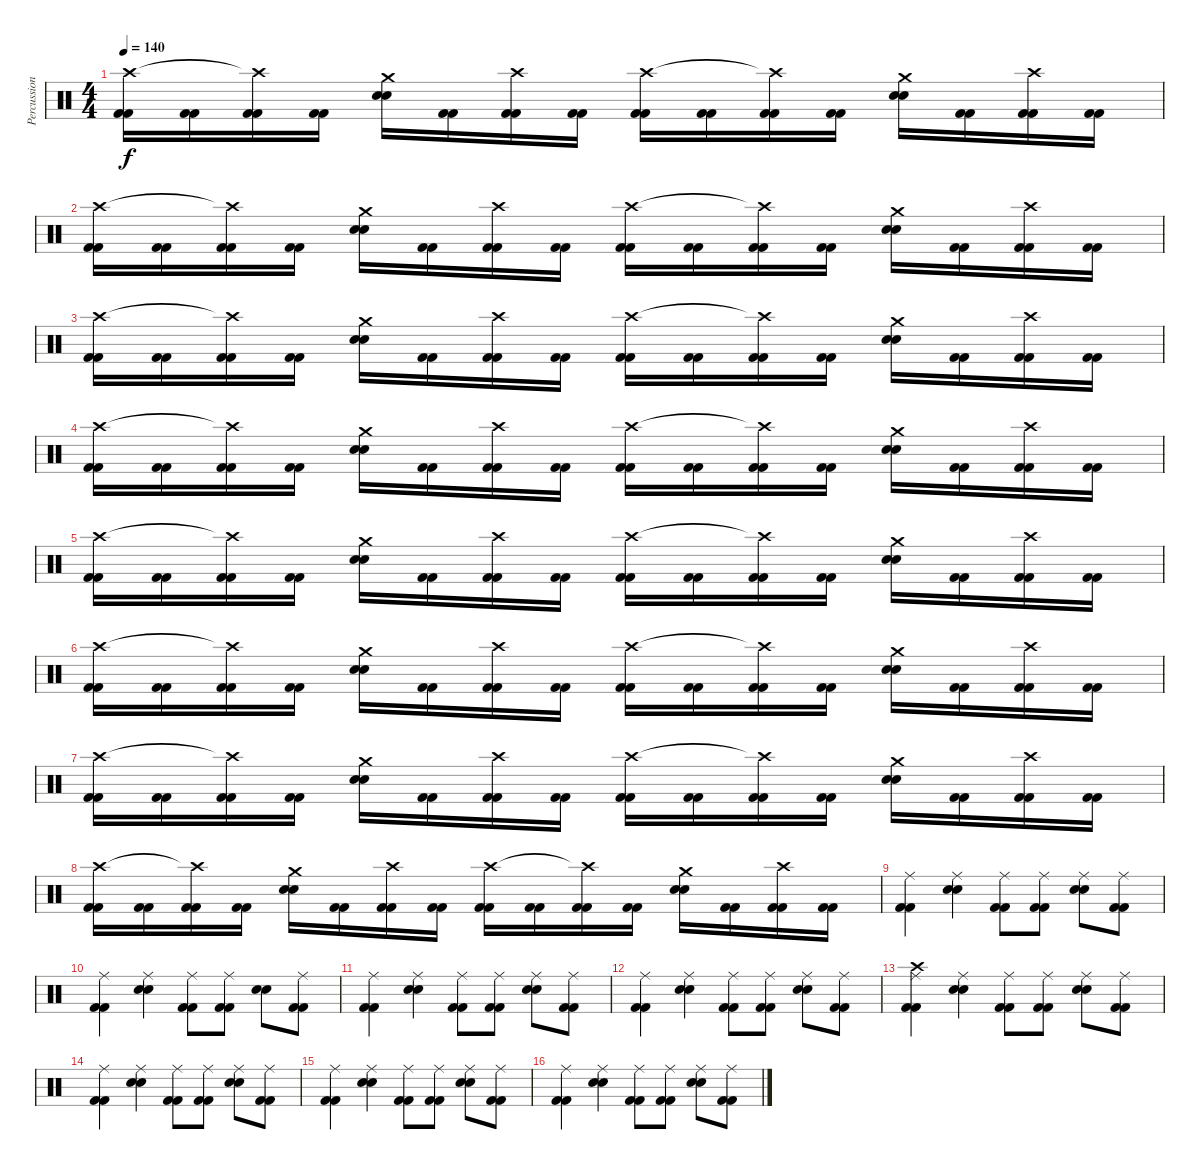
\track ("Percussion" "Percussion") {instrument percussion}
\staff {score}
\articulation defaults
\ts (4 4)
\tempo 140
\clef neutral
\ks c
("Kick (hit) 2" "Kick (hit) 2" "Crash high (hit)").16{dy f} ("Kick (hit) 2" "Kick (hit) 2").16 ("Kick (hit) 2" "Kick (hit) 2" "Crash high (hit)"{t}).16 ("Kick (hit) 2" "Kick (hit) 2").16 ("Snare (hit) 2" "Snare (hit) 2" "Crash medium (hit)").16 ("Kick (hit) 2" "Kick (hit) 2").16 ("Kick (hit) 2" "Kick (hit) 2" "Crash high (hit)").16 ("Kick (hit) 2" "Kick (hit) 2").16 ("Kick (hit) 2" "Kick (hit) 2" "Crash high (hit)").16 ("Kick (hit) 2" "Kick (hit) 2").16 ("Kick (hit) 2" "Kick (hit) 2" "Crash high (hit)"{t}).16 ("Kick (hit) 2" "Kick (hit) 2").16 ("Snare (hit) 2" "Snare (hit) 2" "Crash medium (hit)").16 ("Kick (hit) 2" "Kick (hit) 2").16 ("Kick (hit) 2" "Kick (hit) 2" "Crash high (hit)").16 ("Kick (hit) 2" "Kick (hit) 2").16 |
("Kick (hit) 2" "Kick (hit) 2" "Crash high (hit)").16 ("Kick (hit) 2" "Kick (hit) 2").16 ("Kick (hit) 2" "Kick (hit) 2" "Crash high (hit)"{t}).16 ("Kick (hit) 2" "Kick (hit) 2").16 ("Snare (hit) 2" "Snare (hit) 2" "Crash medium (hit)").16 ("Kick (hit) 2" "Kick (hit) 2").16 ("Kick (hit) 2" "Kick (hit) 2" "Crash high (hit)").16 ("Kick (hit) 2" "Kick (hit) 2").16 ("Kick (hit) 2" "Kick (hit) 2" "Crash high (hit)").16 ("Kick (hit) 2" "Kick (hit) 2").16 ("Kick (hit) 2" "Kick (hit) 2" "Crash high (hit)"{t}).16 ("Kick (hit) 2" "Kick (hit) 2").16 ("Snare (hit) 2" "Snare (hit) 2" "Crash medium (hit)").16 ("Kick (hit) 2" "Kick (hit) 2").16 ("Kick (hit) 2" "Kick (hit) 2" "Crash high (hit)").16 ("Kick (hit) 2" "Kick (hit) 2").16 |
("Kick (hit) 2" "Kick (hit) 2" "Crash high (hit)").16 ("Kick (hit) 2" "Kick (hit) 2").16 ("Kick (hit) 2" "Kick (hit) 2" "Crash high (hit)"{t}).16 ("Kick (hit) 2" "Kick (hit) 2").16 ("Snare (hit) 2" "Snare (hit) 2" "Crash medium (hit)").16 ("Kick (hit) 2" "Kick (hit) 2").16 ("Kick (hit) 2" "Kick (hit) 2" "Crash high (hit)").16 ("Kick (hit) 2" "Kick (hit) 2").16 ("Kick (hit) 2" "Kick (hit) 2" "Crash high (hit)").16 ("Kick (hit) 2" "Kick (hit) 2").16 ("Kick (hit) 2" "Kick (hit) 2" "Crash high (hit)"{t}).16 ("Kick (hit) 2" "Kick (hit) 2").16 ("Snare (hit) 2" "Snare (hit) 2" "Crash medium (hit)").16 ("Kick (hit) 2" "Kick (hit) 2").16 ("Kick (hit) 2" "Kick (hit) 2" "Crash high (hit)").16 ("Kick (hit) 2" "Kick (hit) 2").16 |
("Kick (hit) 2" "Kick (hit) 2" "Crash high (hit)").16 ("Kick (hit) 2" "Kick (hit) 2").16 ("Kick (hit) 2" "Kick (hit) 2" "Crash high (hit)"{t}).16 ("Kick (hit) 2" "Kick (hit) 2").16 ("Snare (hit) 2" "Snare (hit) 2" "Crash medium (hit)").16 ("Kick (hit) 2" "Kick (hit) 2").16 ("Kick (hit) 2" "Kick (hit) 2" "Crash high (hit)").16 ("Kick (hit) 2" "Kick (hit) 2").16 ("Kick (hit) 2" "Kick (hit) 2" "Crash high (hit)").16 ("Kick (hit) 2" "Kick (hit) 2").16 ("Kick (hit) 2" "Kick (hit) 2" "Crash high (hit)"{t}).16 ("Kick (hit) 2" "Kick (hit) 2").16 ("Snare (hit) 2" "Snare (hit) 2" "Crash medium (hit)").16 ("Kick (hit) 2" "Kick (hit) 2").16 ("Kick (hit) 2" "Kick (hit) 2" "Crash high (hit)").16 ("Kick (hit) 2" "Kick (hit) 2").16 |
("Kick (hit) 2" "Kick (hit) 2" "Crash high (hit)").16 ("Kick (hit) 2" "Kick (hit) 2").16 ("Kick (hit) 2" "Kick (hit) 2" "Crash high (hit)"{t}).16 ("Kick (hit) 2" "Kick (hit) 2").16 ("Snare (hit) 2" "Snare (hit) 2" "Crash medium (hit)").16 ("Kick (hit) 2" "Kick (hit) 2").16 ("Kick (hit) 2" "Kick (hit) 2" "Crash high (hit)").16 ("Kick (hit) 2" "Kick (hit) 2").16 ("Kick (hit) 2" "Kick (hit) 2" "Crash high (hit)").16 ("Kick (hit) 2" "Kick (hit) 2").16 ("Kick (hit) 2" "Kick (hit) 2" "Crash high (hit)"{t}).16 ("Kick (hit) 2" "Kick (hit) 2").16 ("Snare (hit) 2" "Snare (hit) 2" "Crash medium (hit)").16 ("Kick (hit) 2" "Kick (hit) 2").16 ("Kick (hit) 2" "Kick (hit) 2" "Crash high (hit)").16 ("Kick (hit) 2" "Kick (hit) 2").16 |
("Kick (hit) 2" "Kick (hit) 2" "Crash high (hit)").16 ("Kick (hit) 2" "Kick (hit) 2").16 ("Kick (hit) 2" "Kick (hit) 2" "Crash high (hit)"{t}).16 ("Kick (hit) 2" "Kick (hit) 2").16 ("Snare (hit) 2" "Snare (hit) 2" "Crash medium (hit)").16 ("Kick (hit) 2" "Kick (hit) 2").16 ("Kick (hit) 2" "Kick (hit) 2" "Crash high (hit)").16 ("Kick (hit) 2" "Kick (hit) 2").16 ("Kick (hit) 2" "Kick (hit) 2" "Crash high (hit)").16 ("Kick (hit) 2" "Kick (hit) 2").16 ("Kick (hit) 2" "Kick (hit) 2" "Crash high (hit)"{t}).16 ("Kick (hit) 2" "Kick (hit) 2").16 ("Snare (hit) 2" "Snare (hit) 2" "Crash medium (hit)").16 ("Kick (hit) 2" "Kick (hit) 2").16 ("Kick (hit) 2" "Kick (hit) 2" "Crash high (hit)").16 ("Kick (hit) 2" "Kick (hit) 2").16 |
("Kick (hit) 2" "Kick (hit) 2" "Crash high (hit)").16 ("Kick (hit) 2" "Kick (hit) 2").16 ("Kick (hit) 2" "Kick (hit) 2" "Crash high (hit)"{t}).16 ("Kick (hit) 2" "Kick (hit) 2").16 ("Snare (hit) 2" "Snare (hit) 2" "Crash medium (hit)").16 ("Kick (hit) 2" "Kick (hit) 2").16 ("Kick (hit) 2" "Kick (hit) 2" "Crash high (hit)").16 ("Kick (hit) 2" "Kick (hit) 2").16 ("Kick (hit) 2" "Kick (hit) 2" "Crash high (hit)").16 ("Kick (hit) 2" "Kick (hit) 2").16 ("Kick (hit) 2" "Kick (hit) 2" "Crash high (hit)"{t}).16 ("Kick (hit) 2" "Kick (hit) 2").16 ("Snare (hit) 2" "Snare (hit) 2" "Crash medium (hit)").16 ("Kick (hit) 2" "Kick (hit) 2").16 ("Kick (hit) 2" "Kick (hit) 2" "Crash high (hit)").16 ("Kick (hit) 2" "Kick (hit) 2").16 |
("Kick (hit) 2" "Kick (hit) 2" "Crash high (hit)").16 ("Kick (hit) 2" "Kick (hit) 2").16 ("Kick (hit) 2" "Kick (hit) 2" "Crash high (hit)"{t}).16 ("Kick (hit) 2" "Kick (hit) 2").16 ("Snare (hit) 2" "Snare (hit) 2" "Crash medium (hit)").16 ("Kick (hit) 2" "Kick (hit) 2").16 ("Kick (hit) 2" "Kick (hit) 2" "Crash high (hit)").16 ("Kick (hit) 2" "Kick (hit) 2").16 ("Kick (hit) 2" "Kick (hit) 2" "Crash high (hit)").16 ("Kick (hit) 2" "Kick (hit) 2").16 ("Kick (hit) 2" "Kick (hit) 2" "Crash high (hit)"{t}).16 ("Kick (hit) 2" "Kick (hit) 2").16 ("Snare (hit) 2" "Snare (hit) 2" "Crash medium (hit)").16 ("Kick (hit) 2" "Kick (hit) 2").16 ("Kick (hit) 2" "Kick (hit) 2" "Crash high (hit)").16 ("Kick (hit) 2" "Kick (hit) 2").16 |
("Kick (hit) 2" "Kick (hit) 2" "Ride (middle)").4 ("Snare (hit) 2" "Snare (hit) 2" "Ride (middle)").4 ("Kick (hit) 2" "Kick (hit) 2" "Ride (middle)").8 ("Kick (hit) 2" "Kick (hit) 2" "Ride (middle)").8 ("Snare (hit) 2" "Snare (hit) 2" "Ride (middle)").8 ("Kick (hit) 2" "Kick (hit) 2" "Ride (middle)").8 |
("Kick (hit) 2" "Kick (hit) 2" "Ride (middle)").4 ("Snare (hit) 2" "Snare (hit) 2" "Ride (middle)").4 ("Kick (hit) 2" "Kick (hit) 2" "Ride (middle)").8 ("Kick (hit) 2" "Kick (hit) 2" "Ride (middle)").8 ("Snare (hit) 2" "Snare (hit) 2").8 ("Kick (hit) 2" "Kick (hit) 2" "Ride (middle)").8 |
("Kick (hit) 2" "Kick (hit) 2" "Ride (middle)").4 ("Snare (hit) 2" "Snare (hit) 2" "Ride (middle)").4 ("Kick (hit) 2" "Kick (hit) 2" "Ride (middle)").8 ("Kick (hit) 2" "Kick (hit) 2" "Ride (middle)").8 ("Snare (hit) 2" "Snare (hit) 2" "Ride (middle)").8 ("Kick (hit) 2" "Kick (hit) 2" "Ride (middle)").8 |
("Kick (hit) 2" "Kick (hit) 2" "Ride (middle)").4 ("Snare (hit) 2" "Snare (hit) 2" "Ride (middle)").4 ("Kick (hit) 2" "Kick (hit) 2" "Ride (middle)").8 ("Kick (hit) 2" "Kick (hit) 2" "Ride (middle)").8 ("Snare (hit) 2" "Snare (hit) 2" "Ride (middle)").8 ("Kick (hit) 2" "Kick (hit) 2" "Ride (middle)").8 |
("Kick (hit) 2" "Kick (hit) 2" "Ride (middle)" "Crash high (hit)").4 ("Snare (hit) 2" "Snare (hit) 2" "Ride (middle)").4 ("Kick (hit) 2" "Kick (hit) 2" "Ride (middle)").8 ("Kick (hit) 2" "Kick (hit) 2" "Ride (middle)").8 ("Snare (hit) 2" "Snare (hit) 2" "Ride (middle)").8 ("Kick (hit) 2" "Kick (hit) 2" "Ride (middle)").8 |
("Kick (hit) 2" "Kick (hit) 2" "Ride (middle)").4 ("Snare (hit) 2" "Snare (hit) 2" "Ride (middle)").4 ("Kick (hit) 2" "Kick (hit) 2" "Ride (middle)").8 ("Kick (hit) 2" "Kick (hit) 2" "Ride (middle)").8 ("Snare (hit) 2" "Snare (hit) 2" "Ride (middle)").8 ("Kick (hit) 2" "Kick (hit) 2" "Ride (middle)").8 |
("Kick (hit) 2" "Kick (hit) 2" "Ride (middle)").4 ("Snare (hit) 2" "Snare (hit) 2" "Ride (middle)").4 ("Kick (hit) 2" "Kick (hit) 2" "Ride (middle)").8 ("Kick (hit) 2" "Kick (hit) 2" "Ride (middle)").8 ("Snare (hit) 2" "Snare (hit) 2" "Ride (middle)").8 ("Kick (hit) 2" "Kick (hit) 2" "Ride (middle)").8 |
("Kick (hit) 2" "Kick (hit) 2" "Ride (middle)").4 ("Snare (hit) 2" "Snare (hit) 2" "Ride (middle)").4 ("Kick (hit) 2" "Kick (hit) 2" "Ride (middle)").8 ("Kick (hit) 2" "Kick (hit) 2" "Ride (middle)").8 ("Snare (hit) 2" "Snare (hit) 2" "Ride (middle)").8 ("Kick (hit) 2" "Kick (hit) 2" "Ride (middle)").8
